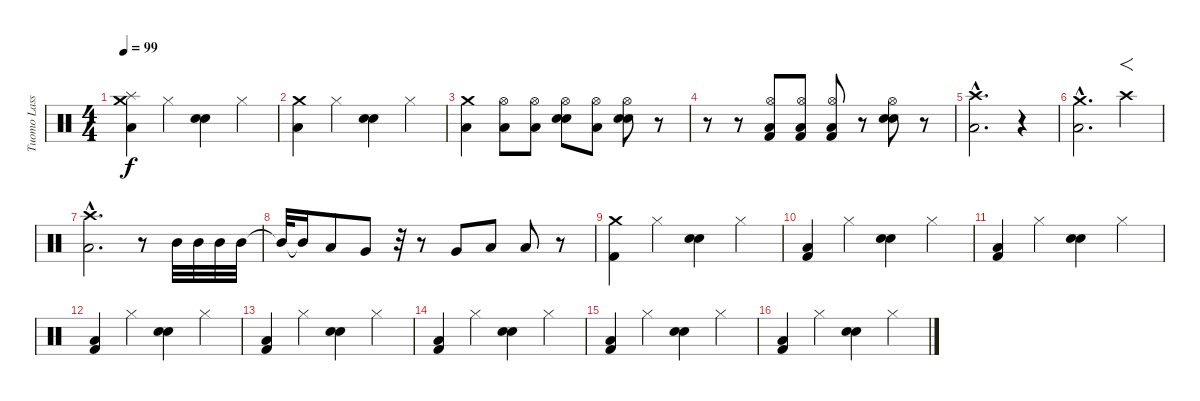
\track ("Tuomo Lassila" "Tuomo Lass") {instrument percussion}
\staff {score}
\articulation defaults
\ts (4 4)
\tempo 99
\clef neutral
\ks c
("Splash (hit)" "Low Floor Tom (hit)" "Crash medium (hit)").4{dy f} "Hi-Hat (closed)".4 ("Electric Snare (hit)" "Snare (hit) 2").4 "Hi-Hat (closed)".4 |
("Crash medium (hit)" "Low Floor Tom (hit)").4 "Hi-Hat (closed)".4 ("Electric Snare (hit)" "Snare (hit) 2").4 "Hi-Hat (closed)".4 |
("Crash medium (hit)" "Low Floor Tom (hit)").4 ("Low Floor Tom (hit)" "Hi-Hat (open)").8 ("Low Floor Tom (hit)" "Hi-Hat (open)").8 ("Electric Snare (hit)" "Snare (hit) 2" "Hi-Hat (open)").8 ("Low Floor Tom (hit)" "Hi-Hat (open)").8 ("Electric Snare (hit)" "Snare (hit) 2" "Hi-Hat (open)").8 r.8 |
r.8 r.8 ("Kick (hit) 2" "Low Floor Tom (hit)" "Hi-Hat (open)").8 ("Kick (hit) 2" "Low Floor Tom (hit)" "Hi-Hat (open)").8 ("Kick (hit) 2" "Low Floor Tom (hit)" "Hi-Hat (open)").8 r.8 ("Snare (hit) 2" "Electric Snare (hit)" "Hi-Hat (open)").8 r.8 |
("Low Floor Tom (hit)"{hac} "Crash high (hit)"{hac}).2{d} r.4 |
("Crash medium (hit)"{hac} "Low Floor Tom (hit)"{hac}).2{d} "Crash high (hit)".4{f} |
("Crash high (hit)"{hac} "Low Floor Tom (hit)"{hac}).2{d} r.8 "Mid Tom (hit)".32{balance 5} "Mid Tom (hit)".32 "Mid Tom (hit)".32{balance 6} "Mid Tom (hit)".32 |
"Mid Tom (hit)"{t}.32 "Mid Tom (hit)"{t}.16 "Low Tom (hit)".8{balance 6} "Very Low Tom (hit)".8{balance 9} r.32 r.8 "Very Low Tom (hit)".8{balance 13} "Low Floor Tom (hit)".8{balance 14} "Low Floor Tom (hit)".8{balance 14} r.8 |
("Crash medium (hit)" "Kick (hit) 2").4 "Hi-Hat (closed)".4 ("Electric Snare (hit)" "Snare (hit) 2").4 "Hi-Hat (closed)".4 |
("Kick (hit) 2" "Low Floor Tom (hit)").4 "Hi-Hat (closed)".4 ("Electric Snare (hit)" "Snare (hit) 2").4 "Hi-Hat (closed)".4 |
("Kick (hit) 2" "Low Floor Tom (hit)").4 "Hi-Hat (closed)".4 ("Electric Snare (hit)" "Snare (hit) 2").4 "Hi-Hat (closed)".4 |
("Kick (hit) 2" "Low Floor Tom (hit)").4 "Hi-Hat (closed)".4 ("Electric Snare (hit)" "Snare (hit) 2").4 "Hi-Hat (closed)".4 |
("Kick (hit) 2" "Low Floor Tom (hit)").4 "Hi-Hat (closed)".4 ("Electric Snare (hit)" "Snare (hit) 2").4 "Hi-Hat (closed)".4 |
("Kick (hit) 2" "Low Floor Tom (hit)").4 "Hi-Hat (closed)".4 ("Electric Snare (hit)" "Snare (hit) 2").4 "Hi-Hat (closed)".4 |
("Kick (hit) 2" "Low Floor Tom (hit)").4 "Hi-Hat (closed)".4 ("Electric Snare (hit)" "Snare (hit) 2").4 "Hi-Hat (closed)".4 |
("Kick (hit) 2" "Low Floor Tom (hit)").4 "Hi-Hat (closed)".4 ("Electric Snare (hit)" "Snare (hit) 2").4 "Hi-Hat (closed)".4
